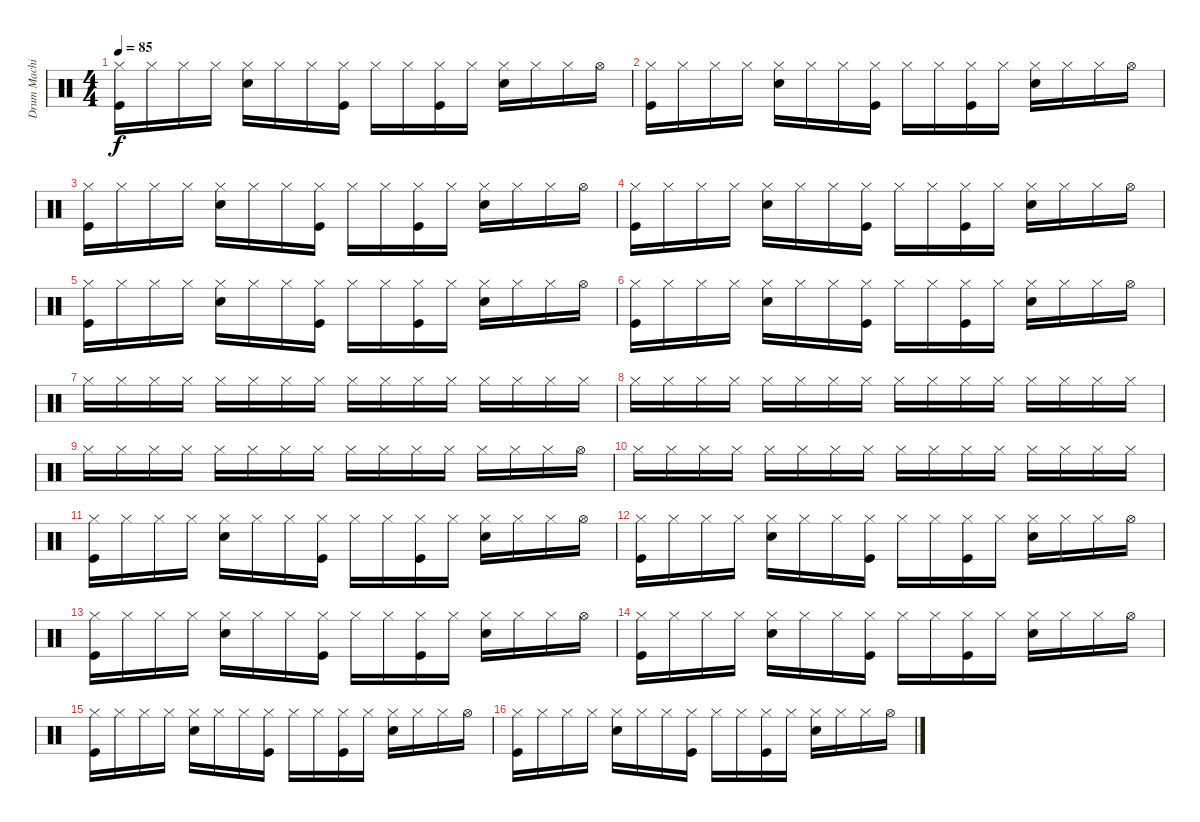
\track ("Drum Machine" "Drum Machi") {instrument percussion}
\staff {score}
\articulation defaults
\ts (4 4)
\tempo 85
\clef neutral
\ks c
("Hi-Hat (closed)" "Kick (hit)").16{dy f} "Hi-Hat (closed)".16 "Hi-Hat (closed)".16 "Hi-Hat (closed)".16 ("Hi-Hat (closed)" "Snare (hit) 2").16 "Hi-Hat (closed)".16 "Hi-Hat (closed)".16 ("Hi-Hat (closed)" "Kick (hit)").16 "Hi-Hat (closed)".16 "Hi-Hat (closed)".16 ("Hi-Hat (closed)" "Kick (hit)").16 "Hi-Hat (closed)".16 ("Hi-Hat (closed)" "Snare (hit) 2").16 "Hi-Hat (closed)".16 "Hi-Hat (closed)".16 "Hi-Hat (open)".16 |
("Hi-Hat (closed)" "Kick (hit)").16 "Hi-Hat (closed)".16 "Hi-Hat (closed)".16 "Hi-Hat (closed)".16 ("Hi-Hat (closed)" "Snare (hit) 2").16 "Hi-Hat (closed)".16 "Hi-Hat (closed)".16 ("Hi-Hat (closed)" "Kick (hit)").16 "Hi-Hat (closed)".16 "Hi-Hat (closed)".16 ("Hi-Hat (closed)" "Kick (hit)").16 "Hi-Hat (closed)".16 ("Hi-Hat (closed)" "Snare (hit) 2").16 "Hi-Hat (closed)".16 "Hi-Hat (closed)".16 "Hi-Hat (open)".16 |
("Hi-Hat (closed)" "Kick (hit)").16 "Hi-Hat (closed)".16 "Hi-Hat (closed)".16 "Hi-Hat (closed)".16 ("Hi-Hat (closed)" "Snare (hit) 2").16 "Hi-Hat (closed)".16 "Hi-Hat (closed)".16 ("Hi-Hat (closed)" "Kick (hit)").16 "Hi-Hat (closed)".16 "Hi-Hat (closed)".16 ("Hi-Hat (closed)" "Kick (hit)").16 "Hi-Hat (closed)".16 ("Hi-Hat (closed)" "Snare (hit) 2").16 "Hi-Hat (closed)".16 "Hi-Hat (closed)".16 "Hi-Hat (open)".16 |
("Hi-Hat (closed)" "Kick (hit)").16 "Hi-Hat (closed)".16 "Hi-Hat (closed)".16 "Hi-Hat (closed)".16 ("Hi-Hat (closed)" "Snare (hit) 2").16 "Hi-Hat (closed)".16 "Hi-Hat (closed)".16 ("Hi-Hat (closed)" "Kick (hit)").16 "Hi-Hat (closed)".16 "Hi-Hat (closed)".16 ("Hi-Hat (closed)" "Kick (hit)").16 "Hi-Hat (closed)".16 ("Hi-Hat (closed)" "Snare (hit) 2").16 "Hi-Hat (closed)".16 "Hi-Hat (closed)".16 "Hi-Hat (open)".16 |
("Hi-Hat (closed)" "Kick (hit)").16 "Hi-Hat (closed)".16 "Hi-Hat (closed)".16 "Hi-Hat (closed)".16 ("Hi-Hat (closed)" "Snare (hit) 2").16 "Hi-Hat (closed)".16 "Hi-Hat (closed)".16 ("Hi-Hat (closed)" "Kick (hit)").16 "Hi-Hat (closed)".16 "Hi-Hat (closed)".16 ("Hi-Hat (closed)" "Kick (hit)").16 "Hi-Hat (closed)".16 ("Hi-Hat (closed)" "Snare (hit) 2").16 "Hi-Hat (closed)".16 "Hi-Hat (closed)".16 "Hi-Hat (open)".16 |
("Hi-Hat (closed)" "Kick (hit)").16 "Hi-Hat (closed)".16 "Hi-Hat (closed)".16 "Hi-Hat (closed)".16 ("Hi-Hat (closed)" "Snare (hit) 2").16 "Hi-Hat (closed)".16 "Hi-Hat (closed)".16 ("Hi-Hat (closed)" "Kick (hit)").16 "Hi-Hat (closed)".16 "Hi-Hat (closed)".16 ("Hi-Hat (closed)" "Kick (hit)").16 "Hi-Hat (closed)".16 ("Hi-Hat (closed)" "Snare (hit) 2").16 "Hi-Hat (closed)".16 "Hi-Hat (closed)".16 "Hi-Hat (open)".16 |
"Hi-Hat (closed)".16 "Hi-Hat (closed)".16 "Hi-Hat (closed)".16 "Hi-Hat (closed)".16 "Hi-Hat (closed)".16 "Hi-Hat (closed)".16 "Hi-Hat (closed)".16 "Hi-Hat (closed)".16 "Hi-Hat (closed)".16 "Hi-Hat (closed)".16 "Hi-Hat (closed)".16 "Hi-Hat (closed)".16 "Hi-Hat (closed)".16 "Hi-Hat (closed)".16 "Hi-Hat (closed)".16 "Hi-Hat (closed)".16 |
"Hi-Hat (closed)".16 "Hi-Hat (closed)".16 "Hi-Hat (closed)".16 "Hi-Hat (closed)".16 "Hi-Hat (closed)".16 "Hi-Hat (closed)".16 "Hi-Hat (closed)".16 "Hi-Hat (closed)".16 "Hi-Hat (closed)".16 "Hi-Hat (closed)".16 "Hi-Hat (closed)".16 "Hi-Hat (closed)".16 "Hi-Hat (closed)".16 "Hi-Hat (closed)".16 "Hi-Hat (closed)".16 "Hi-Hat (closed)".16 |
"Hi-Hat (closed)".16 "Hi-Hat (closed)".16 "Hi-Hat (closed)".16 "Hi-Hat (closed)".16 "Hi-Hat (closed)".16 "Hi-Hat (closed)".16 "Hi-Hat (closed)".16 "Hi-Hat (closed)".16 "Hi-Hat (closed)".16 "Hi-Hat (closed)".16 "Hi-Hat (closed)".16 "Hi-Hat (closed)".16 "Hi-Hat (closed)".16 "Hi-Hat (closed)".16 "Hi-Hat (closed)".16 "Hi-Hat (open)".16 |
"Hi-Hat (closed)".16 "Hi-Hat (closed)".16 "Hi-Hat (closed)".16 "Hi-Hat (closed)".16 "Hi-Hat (closed)".16 "Hi-Hat (closed)".16 "Hi-Hat (closed)".16 "Hi-Hat (closed)".16 "Hi-Hat (closed)".16 "Hi-Hat (closed)".16 "Hi-Hat (closed)".16 "Hi-Hat (closed)".16 "Hi-Hat (closed)".16 "Hi-Hat (closed)".16 "Hi-Hat (closed)".16 "Hi-Hat (closed)".16 |
("Hi-Hat (closed)" "Kick (hit)").16 "Hi-Hat (closed)".16 "Hi-Hat (closed)".16 "Hi-Hat (closed)".16 ("Hi-Hat (closed)" "Snare (hit) 2").16 "Hi-Hat (closed)".16 "Hi-Hat (closed)".16 ("Hi-Hat (closed)" "Kick (hit)").16 "Hi-Hat (closed)".16 "Hi-Hat (closed)".16 ("Hi-Hat (closed)" "Kick (hit)").16 "Hi-Hat (closed)".16 ("Hi-Hat (closed)" "Snare (hit) 2").16 "Hi-Hat (closed)".16 "Hi-Hat (closed)".16 "Hi-Hat (open)".16 |
("Hi-Hat (closed)" "Kick (hit)").16 "Hi-Hat (closed)".16 "Hi-Hat (closed)".16 "Hi-Hat (closed)".16 ("Hi-Hat (closed)" "Snare (hit) 2").16 "Hi-Hat (closed)".16 "Hi-Hat (closed)".16 ("Hi-Hat (closed)" "Kick (hit)").16 "Hi-Hat (closed)".16 "Hi-Hat (closed)".16 ("Hi-Hat (closed)" "Kick (hit)").16 "Hi-Hat (closed)".16 ("Hi-Hat (closed)" "Snare (hit) 2").16 "Hi-Hat (closed)".16 "Hi-Hat (closed)".16 "Hi-Hat (open)".16 |
("Hi-Hat (closed)" "Kick (hit)").16 "Hi-Hat (closed)".16 "Hi-Hat (closed)".16 "Hi-Hat (closed)".16 ("Hi-Hat (closed)" "Snare (hit) 2").16 "Hi-Hat (closed)".16 "Hi-Hat (closed)".16 ("Hi-Hat (closed)" "Kick (hit)").16 "Hi-Hat (closed)".16 "Hi-Hat (closed)".16 ("Hi-Hat (closed)" "Kick (hit)").16 "Hi-Hat (closed)".16 ("Hi-Hat (closed)" "Snare (hit) 2").16 "Hi-Hat (closed)".16 "Hi-Hat (closed)".16 "Hi-Hat (open)".16 |
("Hi-Hat (closed)" "Kick (hit)").16 "Hi-Hat (closed)".16 "Hi-Hat (closed)".16 "Hi-Hat (closed)".16 ("Hi-Hat (closed)" "Snare (hit) 2").16 "Hi-Hat (closed)".16 "Hi-Hat (closed)".16 ("Hi-Hat (closed)" "Kick (hit)").16 "Hi-Hat (closed)".16 "Hi-Hat (closed)".16 ("Hi-Hat (closed)" "Kick (hit)").16 "Hi-Hat (closed)".16 ("Hi-Hat (closed)" "Snare (hit) 2").16 "Hi-Hat (closed)".16 "Hi-Hat (closed)".16 "Hi-Hat (open)".16 |
("Hi-Hat (closed)" "Kick (hit)").16 "Hi-Hat (closed)".16 "Hi-Hat (closed)".16 "Hi-Hat (closed)".16 ("Hi-Hat (closed)" "Snare (hit) 2").16 "Hi-Hat (closed)".16 "Hi-Hat (closed)".16 ("Hi-Hat (closed)" "Kick (hit)").16 "Hi-Hat (closed)".16 "Hi-Hat (closed)".16 ("Hi-Hat (closed)" "Kick (hit)").16 "Hi-Hat (closed)".16 ("Hi-Hat (closed)" "Snare (hit) 2").16 "Hi-Hat (closed)".16 "Hi-Hat (closed)".16 "Hi-Hat (open)".16 |
("Hi-Hat (closed)" "Kick (hit)").16 "Hi-Hat (closed)".16 "Hi-Hat (closed)".16 "Hi-Hat (closed)".16 ("Hi-Hat (closed)" "Snare (hit) 2").16 "Hi-Hat (closed)".16 "Hi-Hat (closed)".16 ("Hi-Hat (closed)" "Kick (hit)").16 "Hi-Hat (closed)".16 "Hi-Hat (closed)".16 ("Hi-Hat (closed)" "Kick (hit)").16 "Hi-Hat (closed)".16 ("Hi-Hat (closed)" "Snare (hit) 2").16 "Hi-Hat (closed)".16 "Hi-Hat (closed)".16 "Hi-Hat (open)".16
